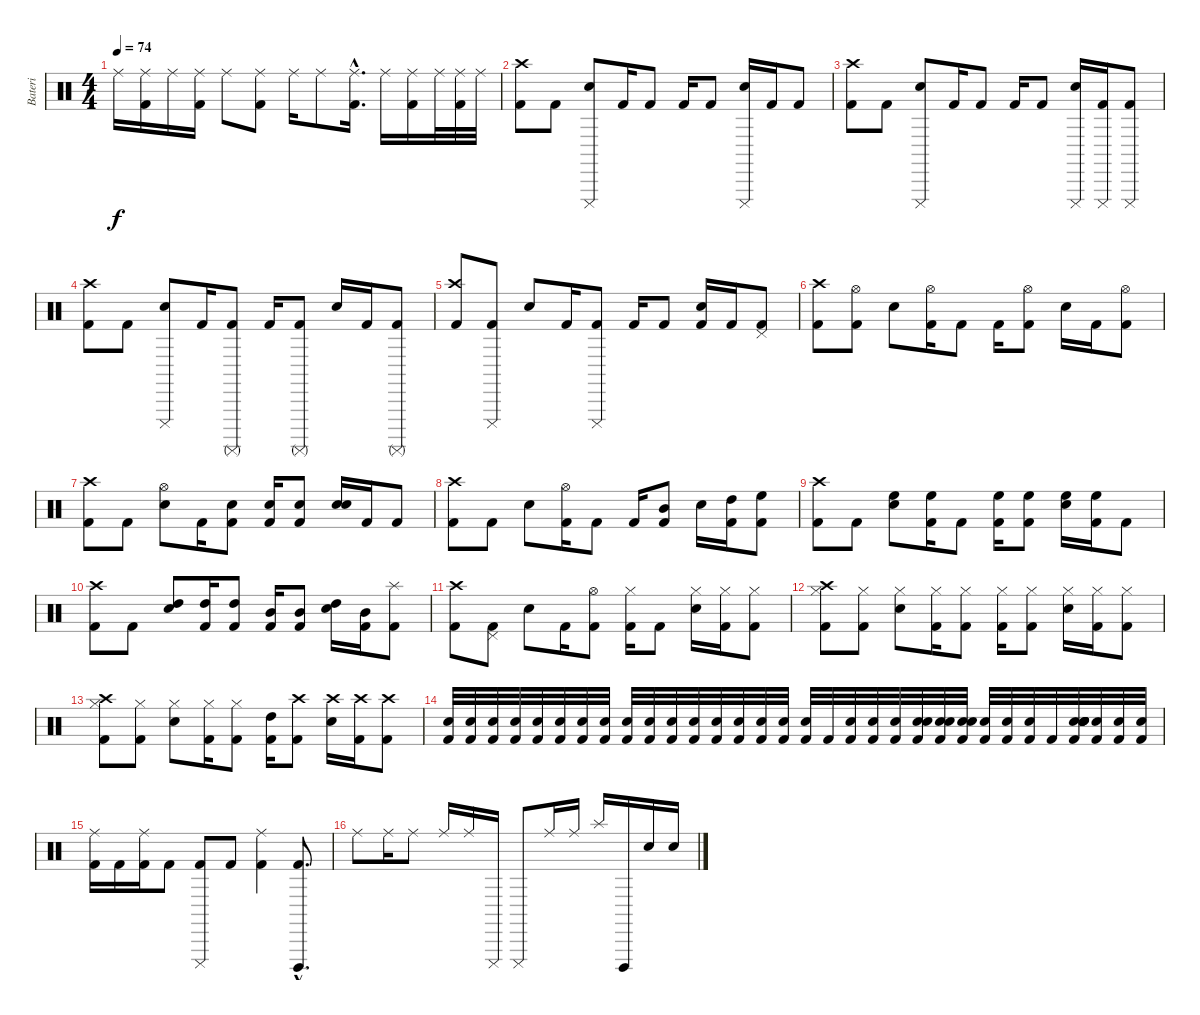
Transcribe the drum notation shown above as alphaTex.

\track ("Bateri" "Bateri") {instrument percussion}
\staff {score}
\articulation defaults
\ts (4 4)
\tempo 74
\clef neutral
\ks c "Ride (middle)".16{dy f}
("Ride (middle)" "Kick (hit) 2").16 "Ride (middle)".16 ("Ride (middle)" "Kick (hit) 2").16 "Ride (middle)".8 ("Ride (middle)" "Kick (hit) 2").8 "Ride (middle)".16 "Ride (middle)".8 ("Ride (middle)"{hac} "Kick (hit) 2"{hac}).16{d} "Ride (middle)".16 ("Ride (middle)" "Kick (hit) 2").16 "Ride (middle)".32 ("Ride (middle)" "Kick (hit) 2").32 "Ride (middle)".32 |
("Crash high (hit)" "Kick (hit) 2").8 "Kick (hit) 2".8 ("Cuica (mute)" "Electric Snare (hit)").8 "Kick (hit) 2".16 "Kick (hit) 2".8 "Kick (hit) 2".16 "Kick (hit) 2".8 ("Cuica (mute)" "Electric Snare (hit)").16 "Kick (hit) 2".16 "Kick (hit) 2".8 |
("Crash high (hit)" "Kick (hit) 2").8 "Kick (hit) 2".8 ("Cuica (mute)" "Electric Snare (hit)").8 "Kick (hit) 2".16 "Kick (hit) 2".8 "Kick (hit) 2".16 "Kick (hit) 2".8 ("Cuica (mute)" "Electric Snare (hit)").16 ("Cuica (mute)" "Kick (hit) 2").16 ("Cuica (mute)" "Kick (hit) 2").8 |
("Crash high (hit)" "Kick (hit) 2").8 "Kick (hit) 2".8 ("Cuica (mute)" "Electric Snare (hit)").8 "Kick (hit) 2".16 ("Surdo (mute)" "Kick (hit) 2").8 "Kick (hit) 2".16 ("Surdo (mute)" "Kick (hit) 2").8 "Electric Snare (hit)".16 "Kick (hit) 2".16 ("Surdo (mute)" "Kick (hit) 2").8 |
("Crash high (hit)" "Kick (hit) 2").8 ("Cuica (mute)" "Kick (hit) 2").8 "Electric Snare (hit)".8 "Kick (hit) 2".16 ("Cuica (mute)" "Kick (hit) 2").8 "Kick (hit) 2".16 "Kick (hit) 2".8 ("Kick (hit) 2" "Electric Snare (hit)").16 "Kick (hit) 2".16 ("Pedal Hi-Hat (hit)" "Kick (hit) 2").8 |
("Crash high (hit)" "Kick (hit) 2").8 ("Hi-Hat (open)" "Kick (hit) 2").8 "Electric Snare (hit)".8 ("Hi-Hat (open)" "Kick (hit) 2").16 "Kick (hit) 2".8 "Kick (hit) 2".16 ("Hi-Hat (open)" "Kick (hit) 2").8 "Electric Snare (hit)".16 "Kick (hit) 2".16 ("Hi-Hat (open)" "Kick (hit) 2").8 |
("Crash high (hit)" "Kick (hit) 2").8 "Kick (hit) 2".8 ("Hi-Hat (open)" "Electric Snare (hit)").8 "Kick (hit) 2".16 ("Electric Snare (hit)" "Kick (hit) 2").8 ("Electric Snare (hit)" "Kick (hit) 2").16 ("Electric Snare (hit)" "Kick (hit) 2").8 ("Electric Snare (hit)" "Electric Snare (hit)").16 "Kick (hit) 2".16 "Kick (hit) 2".8 |
("Crash high (hit)" "Kick (hit) 2").8 "Kick (hit) 2".8 "Electric Snare (hit)".8 ("Hi-Hat (open)" "Kick (hit) 2").16 "Kick (hit) 2".8 "Kick (hit) 2".16 ("Mid Tom (hit)" "Kick (hit) 2").8 "Electric Snare (hit)".16 ("High Tom (hit)" "Kick (hit) 2").16 ("High Floor Tom (hit)" "Kick (hit) 2").8 |
("Crash high (hit)" "Kick (hit) 2").8 "Kick (hit) 2".8 ("High Floor Tom (hit)" "Electric Snare (hit)").8 ("High Floor Tom (hit)" "Kick (hit) 2").16 "Kick (hit) 2".8 ("High Floor Tom (hit)" "Kick (hit) 2").16 ("High Floor Tom (hit)" "Kick (hit) 2").8 ("High Floor Tom (hit)" "Electric Snare (hit)").16 ("High Floor Tom (hit)" "Kick (hit) 2").16 "Kick (hit) 2".8 |
("Crash high (hit)" "Kick (hit) 2").8 "Kick (hit) 2".8 ("High Tom (hit)" "Electric Snare (hit)").8 ("High Tom (hit)" "Kick (hit) 2").16 ("High Tom (hit)" "Kick (hit) 2").8 ("Mid Tom (hit)" "Kick (hit) 2").16 ("Mid Tom (hit)" "Kick (hit) 2").8 ("High Tom (hit)" "Electric Snare (hit)").16 ("Mid Tom (hit)" "Kick (hit) 2").16 ("Splash (hit)" "Kick (hit) 2").8 |
("Crash high (hit)" "Kick (hit) 2").8 ("Pedal Hi-Hat (hit)" "Kick (hit) 2").8 "Electric Snare (hit)".8 "Kick (hit) 2".16 ("Hi-Hat (open)" "Kick (hit) 2").8 ("Hi-Hat (closed)" "Kick (hit) 2").16 "Kick (hit) 2".8 ("Hi-Hat (closed)" "Electric Snare (hit)").16 ("Hi-Hat (closed)" "Kick (hit) 2").16 ("Hi-Hat (closed)" "Kick (hit) 2").8 |
("Hi-Hat (closed)" "Crash high (hit)" "Kick (hit) 2").8 ("Hi-Hat (closed)" "Kick (hit) 2").8 ("Hi-Hat (closed)" "Electric Snare (hit)").8 ("Hi-Hat (closed)" "Kick (hit) 2").16 ("Hi-Hat (closed)" "Kick (hit) 2").8 ("Hi-Hat (closed)" "Kick (hit) 2").16 ("Hi-Hat (closed)" "Kick (hit) 2").8 ("Hi-Hat (closed)" "Electric Snare (hit)").16 ("Hi-Hat (closed)" "Kick (hit) 2").16 ("Hi-Hat (closed)" "Kick (hit) 2").8 |
("Hi-Hat (closed)" "Crash high (hit)" "Kick (hit) 2").8 ("Hi-Hat (closed)" "Kick (hit) 2").8 ("Hi-Hat (closed)" "Electric Snare (hit)").8 ("Hi-Hat (closed)" "Kick (hit) 2").16 ("Hi-Hat (closed)" "Kick (hit) 2").8 ("High Tom (hit)" "Kick (hit) 2").16 ("Crash high (hit)" "Kick (hit) 2").8 ("Crash high (hit)" "Electric Snare (hit)").16 ("Crash high (hit)" "Kick (hit) 2").16 ("Crash high (hit)" "Kick (hit) 2").8 |
("Electric Snare (hit)" "Kick (hit) 2").32 ("Electric Snare (hit)" "Kick (hit) 2").32 ("Electric Snare (hit)" "Kick (hit) 2").32 ("Electric Snare (hit)" "Kick (hit) 2").32 ("Electric Snare (hit)" "Kick (hit) 2").32 ("Electric Snare (hit)" "Kick (hit) 2").32 ("Electric Snare (hit)" "Kick (hit) 2").32 ("Electric Snare (hit)" "Kick (hit) 2").32 ("Electric Snare (hit)" "Kick (hit) 2").32 ("Electric Snare (hit)" "Kick (hit) 2").32 ("Electric Snare (hit)" "Kick (hit) 2").32 ("Electric Snare (hit)" "Kick (hit) 2").32 ("Electric Snare (hit)" "Kick (hit) 2").32 ("Electric Snare (hit)" "Kick (hit) 2").32 ("Electric Snare (hit)" "Kick (hit) 2").32 ("Electric Snare (hit)" "Kick (hit) 2").32 ("Electric Snare (hit)" "Kick (hit) 2").32 "Kick (hit) 2".32 ("Electric Snare (hit)" "Kick (hit) 2").32 ("Electric Snare (hit)" "Kick (hit) 2").32 ("Electric Snare (hit)" "Kick (hit) 2").32 ("Electric Snare (hit)" "Electric Snare (hit)" "Kick (hit) 2").32 ("Electric Snare (hit)" "Electric Snare (hit)" "Kick (hit) 2").32 ("Electric Snare (hit)" "Electric Snare (hit)" "Kick (hit) 2").32 ("Electric Snare (hit)" "Kick (hit) 2").32 ("Electric Snare (hit)" "Kick (hit) 2").32 ("Electric Snare (hit)" "Kick (hit) 2").32 "Kick (hit) 2".32 ("Electric Snare (hit)" "Electric Snare (hit)" "Electric Snare (hit)" "Electric Snare (hit)" "Electric Snare (hit)" "Kick (hit) 2").32 ("Electric Snare (hit)" "Kick (hit) 2").32 ("Electric Snare (hit)" "Kick (hit) 2").32 ("Electric Snare (hit)" "Kick (hit) 2").32 |
("Ride (middle)" "Kick (hit) 2").16 "Kick (hit) 2".16 ("Ride (middle)" "Kick (hit) 2").16 "Kick (hit) 2".8 ("Cuica (mute)" "Kick (hit) 2").8 "Kick (hit) 2".8 ("Ride (middle)" "Kick (hit) 2").4 ("Cuica (open)"{hac} "Kick (hit) 2"{hac}).8{d} |
"Ride (middle)".8 "Ride (middle)".16 "Ride (middle)".8 "Ride (middle)".16 "Ride (middle)".16 "Cuica (mute)".16 "Cuica (mute)".8 "Ride (middle)".16 "Ride (middle)".16 "Splash (hit)".16 "Cuica (open)".16 "Electric Snare (hit)".16 "Electric Snare (hit)".16
